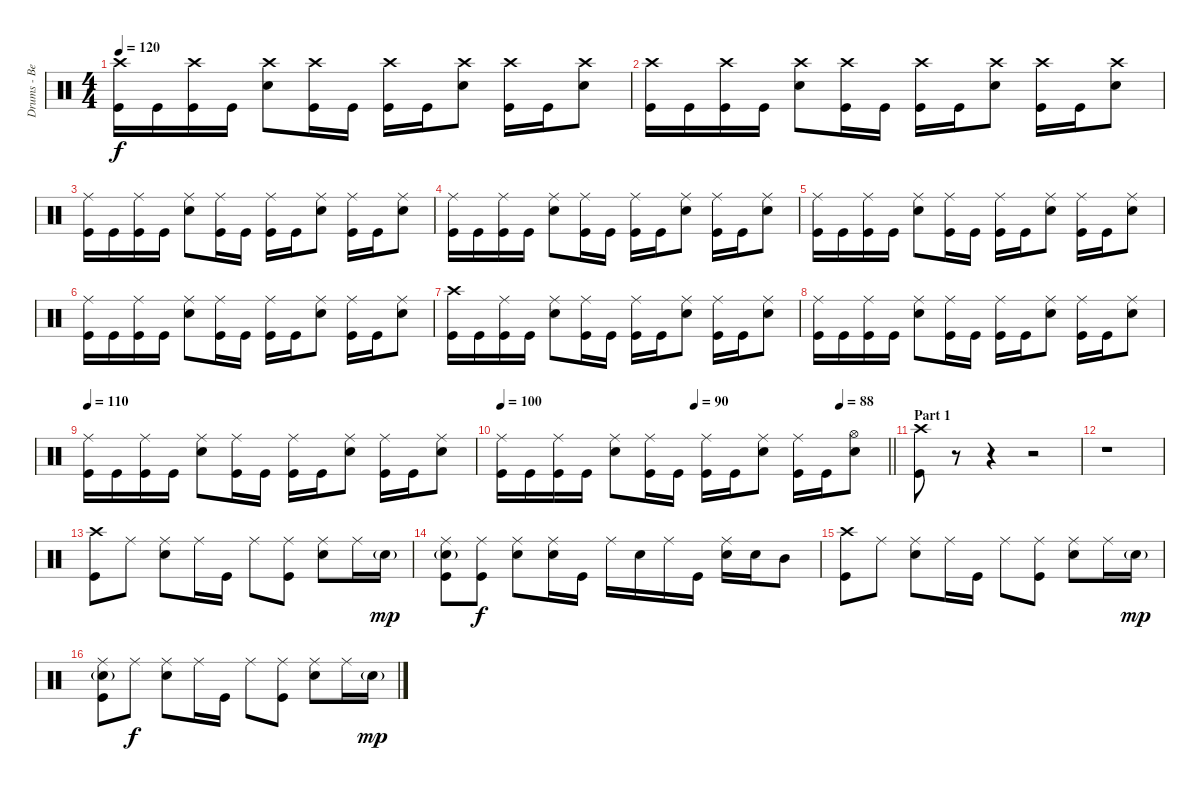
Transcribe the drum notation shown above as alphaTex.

\track ("Drums - Ben Johnston" "Drums - Be") {instrument percussion}
\staff {score}
\articulation defaults
\ts (4 4)
\tempo 120
\clef neutral
\ks c
("Crash high (hit)" "Kick (hit)").16{dy f} "Kick (hit)".16 ("Crash high (hit)" "Kick (hit)").16 "Kick (hit)".16 ("Crash high (hit)" "Snare (hit) 2").8 ("Crash high (hit)" "Kick (hit)").16 "Kick (hit)".16 ("Crash high (hit)" "Kick (hit)").16 "Kick (hit)".16 ("Crash high (hit)" "Snare (hit) 2").8 ("Crash high (hit)" "Kick (hit)").16 "Kick (hit)".16 ("Crash high (hit)" "Snare (hit) 2").8 |
("Crash high (hit)" "Kick (hit)").16 "Kick (hit)".16 ("Crash high (hit)" "Kick (hit)").16 "Kick (hit)".16 ("Crash high (hit)" "Snare (hit) 2").8 ("Crash high (hit)" "Kick (hit)").16 "Kick (hit)".16 ("Crash high (hit)" "Kick (hit)").16 "Kick (hit)".16 ("Crash high (hit)" "Snare (hit) 2").8 ("Crash high (hit)" "Kick (hit)").16 "Kick (hit)".16 ("Crash high (hit)" "Snare (hit) 2").8 |
("Ride (middle)" "Kick (hit)").16 "Kick (hit)".16 ("Ride (middle)" "Kick (hit)").16 "Kick (hit)".16 ("Ride (middle)" "Snare (hit) 2").8 ("Ride (middle)" "Kick (hit)").16 "Kick (hit)".16 ("Ride (middle)" "Kick (hit)").16 "Kick (hit)".16 ("Ride (middle)" "Snare (hit) 2").8 ("Ride (middle)" "Kick (hit)").16 "Kick (hit)".16 ("Ride (middle)" "Snare (hit) 2").8 |
("Ride (middle)" "Kick (hit)").16 "Kick (hit)".16 ("Ride (middle)" "Kick (hit)").16 "Kick (hit)".16 ("Ride (middle)" "Snare (hit) 2").8 ("Ride (middle)" "Kick (hit)").16 "Kick (hit)".16 ("Ride (middle)" "Kick (hit)").16 "Kick (hit)".16 ("Ride (middle)" "Snare (hit) 2").8 ("Ride (middle)" "Kick (hit)").16 "Kick (hit)".16 ("Ride (middle)" "Snare (hit) 2").8 |
("Ride (middle)" "Kick (hit)").16 "Kick (hit)".16 ("Ride (middle)" "Kick (hit)").16 "Kick (hit)".16 ("Ride (middle)" "Snare (hit) 2").8 ("Ride (middle)" "Kick (hit)").16 "Kick (hit)".16 ("Ride (middle)" "Kick (hit)").16 "Kick (hit)".16 ("Ride (middle)" "Snare (hit) 2").8 ("Ride (middle)" "Kick (hit)").16 "Kick (hit)".16 ("Ride (middle)" "Snare (hit) 2").8 |
("Ride (middle)" "Kick (hit)").16 "Kick (hit)".16 ("Ride (middle)" "Kick (hit)").16 "Kick (hit)".16 ("Ride (middle)" "Snare (hit) 2").8 ("Ride (middle)" "Kick (hit)").16 "Kick (hit)".16 ("Ride (middle)" "Kick (hit)").16 "Kick (hit)".16 ("Ride (middle)" "Snare (hit) 2").8 ("Ride (middle)" "Kick (hit)").16 "Kick (hit)".16 ("Ride (middle)" "Snare (hit) 2").8 |
("Crash high (hit)" "Kick (hit)").16 "Kick (hit)".16 ("Ride (middle)" "Kick (hit)").16 "Kick (hit)".16 ("Ride (middle)" "Snare (hit) 2").8 ("Ride (middle)" "Kick (hit)").16 "Kick (hit)".16 ("Ride (middle)" "Kick (hit)").16 "Kick (hit)".16 ("Ride (middle)" "Snare (hit) 2").8 ("Ride (middle)" "Kick (hit)").16 "Kick (hit)".16 ("Ride (middle)" "Snare (hit) 2").8 |
("Ride (middle)" "Kick (hit)").16 "Kick (hit)".16 ("Ride (middle)" "Kick (hit)").16 "Kick (hit)".16 ("Ride (middle)" "Snare (hit) 2").8 ("Ride (middle)" "Kick (hit)").16 "Kick (hit)".16 ("Ride (middle)" "Kick (hit)").16 "Kick (hit)".16 ("Ride (middle)" "Snare (hit) 2").8 ("Ride (middle)" "Kick (hit)").16 "Kick (hit)".16 ("Ride (middle)" "Snare (hit) 2").8 |
\tempo 110
("Ride (middle)" "Kick (hit)").16 "Kick (hit)".16 ("Ride (middle)" "Kick (hit)").16 "Kick (hit)".16 ("Ride (middle)" "Snare (hit) 2").8 ("Ride (middle)" "Kick (hit)").16 "Kick (hit)".16 ("Ride (middle)" "Kick (hit)").16 "Kick (hit)".16 ("Ride (middle)" "Snare (hit) 2").8 ("Ride (middle)" "Kick (hit)").16 "Kick (hit)".16 ("Ride (middle)" "Snare (hit) 2").8 |
\tempo 100
\tempo (90 0.5)
\tempo (88 0.875)
\barLineRight lightlight
("Ride (middle)" "Kick (hit)").16 "Kick (hit)".16 ("Ride (middle)" "Kick (hit)").16 "Kick (hit)".16 ("Ride (middle)" "Snare (hit) 2").8 ("Ride (middle)" "Kick (hit)").16 "Kick (hit)".16 ("Ride (middle)" "Kick (hit)").16 "Kick (hit)".16 ("Ride (middle)" "Snare (hit) 2").8 ("Ride (middle)" "Kick (hit)").16 "Kick (hit)".16 ("Hi-Hat (open)" "Snare (hit) 2").8 |
\section ("" "Part 1")
("Crash high (hit)" "Kick (hit)").8 r.8 r.4 r.2 |
r.1 |
("Crash high (hit)" "Kick (hit)").8 "Ride (middle)".8 ("Ride (middle)" "Snare (hit) 2").8 "Ride (middle)".16 "Kick (hit)".16 "Ride (middle)".8 ("Ride (middle)" "Kick (hit)").8 ("Ride (middle)" "Snare (hit) 2").8 "Ride (middle)".16 "Snare (hit) 2"{g}.16{dy mp} |
("Ride (middle)" "Snare (hit) 2"{g} "Kick (hit)").8 ("Ride (middle)" "Kick (hit)").8{dy f} ("Ride (middle)" "Snare (hit) 2").8 ("Ride (middle)" "Snare (hit) 2").16 "Kick (hit)".16 "Ride (middle)".16 "Snare (hit) 2".16 "Ride (middle)".16 "Kick (hit)".16 ("Ride (middle)" "Snare (hit) 2").16 "Snare (hit) 2".16 "Mid Tom (hit)".8 |
("Crash high (hit)" "Kick (hit)").8 "Ride (middle)".8 ("Ride (middle)" "Snare (hit) 2").8 "Ride (middle)".16 "Kick (hit)".16 "Ride (middle)".8 ("Ride (middle)" "Kick (hit)").8 ("Ride (middle)" "Snare (hit) 2").8 "Ride (middle)".16 "Snare (hit) 2"{g}.16{dy mp} |
("Ride (middle)" "Snare (hit) 2"{g} "Kick (hit)").8 "Ride (middle)".8{dy f} ("Ride (middle)" "Snare (hit) 2").8 "Ride (middle)".16 "Kick (hit)".16 "Ride (middle)".8 ("Ride (middle)" "Kick (hit)").8 ("Ride (middle)" "Snare (hit) 2").8 "Ride (middle)".16 "Snare (hit) 2"{g}.16{dy mp}
